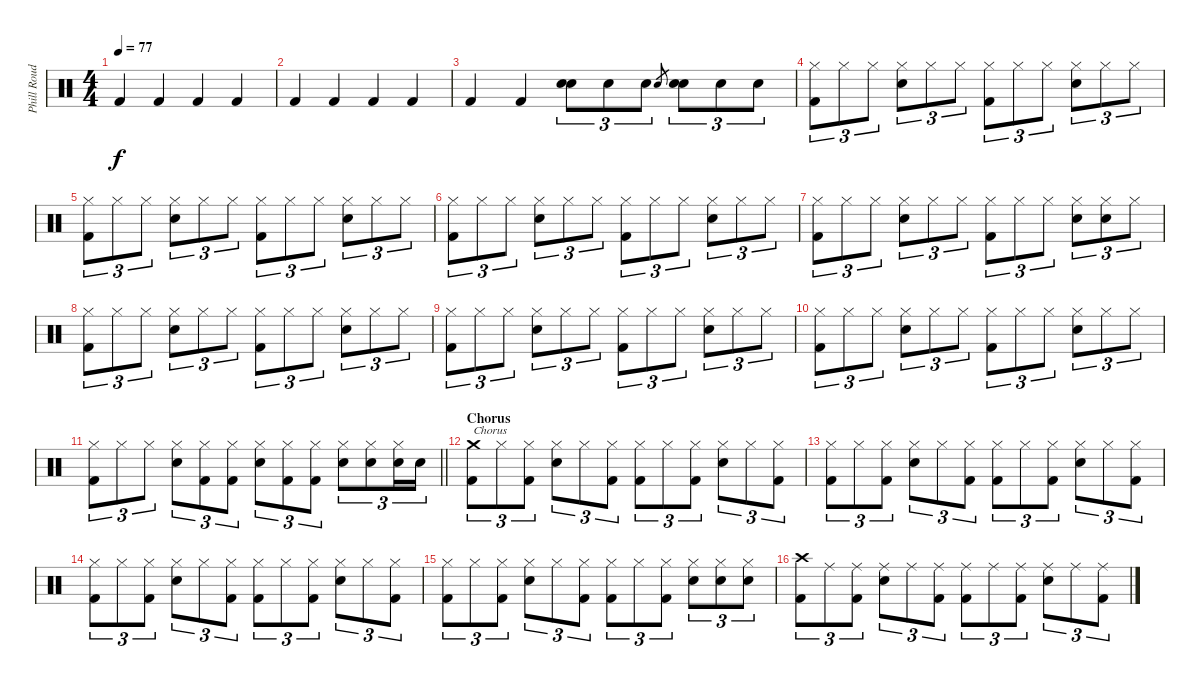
\track ("Phill Roud" "Phill Roud") {instrument percussion}
\staff {score}
\articulation defaults
\ts (4 4)
\tempo 77
\clef neutral
\ks c "Kick (hit) 2".4{dy f} "Kick (hit) 2".4 "Kick (hit) 2".4 "Kick (hit) 2".4
|
"Kick (hit) 2".4 "Kick (hit) 2".4 "Kick (hit) 2".4 "Kick (hit) 2".4 |
"Kick (hit) 2".4 "Kick (hit) 2".4 ("Electric Snare (hit)" "Electric Snare (hit)").8{tu (3 2)} "Electric Snare (hit)".8{tu (3 2)} "Electric Snare (hit)".8{tu (3 2)} "Electric Snare (hit)".8{gr} ("Electric Snare (hit)" "Electric Snare (hit)").8{tu (3 2)} "Electric Snare (hit)".8{tu (3 2)} "Electric Snare (hit)".8{tu (3 2)} |
("Kick (hit) 2" "Hi-Hat (closed)").8{tu (3 2)} "Hi-Hat (closed)".8{tu (3 2)} "Hi-Hat (closed)".8{tu (3 2)} ("Electric Snare (hit)" "Hi-Hat (closed)").8{tu (3 2)} "Hi-Hat (closed)".8{tu (3 2)} "Hi-Hat (closed)".8{tu (3 2)} ("Kick (hit) 2" "Hi-Hat (closed)").8{tu (3 2)} "Hi-Hat (closed)".8{tu (3 2)} "Hi-Hat (closed)".8{tu (3 2)} ("Electric Snare (hit)" "Hi-Hat (closed)").8{tu (3 2)} "Hi-Hat (closed)".8{tu (3 2)} "Hi-Hat (closed)".8{tu (3 2)} |
("Kick (hit) 2" "Hi-Hat (closed)").8{tu (3 2)} "Hi-Hat (closed)".8{tu (3 2)} "Hi-Hat (closed)".8{tu (3 2)} ("Electric Snare (hit)" "Hi-Hat (closed)").8{tu (3 2)} "Hi-Hat (closed)".8{tu (3 2)} "Hi-Hat (closed)".8{tu (3 2)} ("Kick (hit) 2" "Hi-Hat (closed)").8{tu (3 2)} "Hi-Hat (closed)".8{tu (3 2)} "Hi-Hat (closed)".8{tu (3 2)} ("Electric Snare (hit)" "Hi-Hat (closed)").8{tu (3 2)} "Hi-Hat (closed)".8{tu (3 2)} "Hi-Hat (closed)".8{tu (3 2)} |
("Kick (hit) 2" "Hi-Hat (closed)").8{tu (3 2)} "Hi-Hat (closed)".8{tu (3 2)} "Hi-Hat (closed)".8{tu (3 2)} ("Electric Snare (hit)" "Hi-Hat (closed)").8{tu (3 2)} "Hi-Hat (closed)".8{tu (3 2)} "Hi-Hat (closed)".8{tu (3 2)} ("Kick (hit) 2" "Hi-Hat (closed)").8{tu (3 2)} "Hi-Hat (closed)".8{tu (3 2)} "Hi-Hat (closed)".8{tu (3 2)} ("Electric Snare (hit)" "Hi-Hat (closed)").8{tu (3 2)} "Hi-Hat (closed)".8{tu (3 2)} "Hi-Hat (closed)".8{tu (3 2)} |
("Kick (hit) 2" "Hi-Hat (closed)").8{tu (3 2)} "Hi-Hat (closed)".8{tu (3 2)} "Hi-Hat (closed)".8{tu (3 2)} ("Electric Snare (hit)" "Hi-Hat (closed)").8{tu (3 2)} "Hi-Hat (closed)".8{tu (3 2)} "Hi-Hat (closed)".8{tu (3 2)} ("Kick (hit) 2" "Hi-Hat (closed)").8{tu (3 2)} "Hi-Hat (closed)".8{tu (3 2)} "Hi-Hat (closed)".8{tu (3 2)} ("Electric Snare (hit)" "Hi-Hat (closed)").8{tu (3 2)} ("Electric Snare (hit)" "Hi-Hat (closed)").8{tu (3 2)} "Hi-Hat (closed)".8{tu (3 2)} |
("Kick (hit) 2" "Hi-Hat (closed)").8{tu (3 2)} "Hi-Hat (closed)".8{tu (3 2)} "Hi-Hat (closed)".8{tu (3 2)} ("Electric Snare (hit)" "Hi-Hat (closed)").8{tu (3 2)} "Hi-Hat (closed)".8{tu (3 2)} "Hi-Hat (closed)".8{tu (3 2)} ("Kick (hit) 2" "Hi-Hat (closed)").8{tu (3 2)} "Hi-Hat (closed)".8{tu (3 2)} "Hi-Hat (closed)".8{tu (3 2)} ("Electric Snare (hit)" "Hi-Hat (closed)").8{tu (3 2)} "Hi-Hat (closed)".8{tu (3 2)} "Hi-Hat (closed)".8{tu (3 2)} |
("Kick (hit) 2" "Hi-Hat (closed)").8{tu (3 2)} "Hi-Hat (closed)".8{tu (3 2)} "Hi-Hat (closed)".8{tu (3 2)} ("Electric Snare (hit)" "Hi-Hat (closed)").8{tu (3 2)} "Hi-Hat (closed)".8{tu (3 2)} "Hi-Hat (closed)".8{tu (3 2)} ("Kick (hit) 2" "Hi-Hat (closed)").8{tu (3 2)} "Hi-Hat (closed)".8{tu (3 2)} "Hi-Hat (closed)".8{tu (3 2)} ("Electric Snare (hit)" "Hi-Hat (closed)").8{tu (3 2)} "Hi-Hat (closed)".8{tu (3 2)} "Hi-Hat (closed)".8{tu (3 2)} |
("Kick (hit) 2" "Hi-Hat (closed)").8{tu (3 2)} "Hi-Hat (closed)".8{tu (3 2)} "Hi-Hat (closed)".8{tu (3 2)} ("Electric Snare (hit)" "Hi-Hat (closed)").8{tu (3 2)} "Hi-Hat (closed)".8{tu (3 2)} "Hi-Hat (closed)".8{tu (3 2)} ("Kick (hit) 2" "Hi-Hat (closed)").8{tu (3 2)} "Hi-Hat (closed)".8{tu (3 2)} "Hi-Hat (closed)".8{tu (3 2)} ("Electric Snare (hit)" "Hi-Hat (closed)").8{tu (3 2)} "Hi-Hat (closed)".8{tu (3 2)} "Hi-Hat (closed)".8{tu (3 2)} |
\barLineRight lightlight
("Kick (hit) 2" "Hi-Hat (closed)").8{tu (3 2)} "Hi-Hat (closed)".8{tu (3 2)} "Hi-Hat (closed)".8{tu (3 2)} ("Electric Snare (hit)" "Hi-Hat (closed)").8{tu (3 2)} ("Kick (hit) 2" "Hi-Hat (closed)").8{tu (3 2)} ("Kick (hit) 2" "Hi-Hat (closed)").8{tu (3 2)} ("Electric Snare (hit)" "Hi-Hat (closed)").8{tu (3 2)} ("Kick (hit) 2" "Hi-Hat (closed)").8{tu (3 2)} ("Kick (hit) 2" "Hi-Hat (closed)").8{tu (3 2)} ("Electric Snare (hit)" "Hi-Hat (closed)").8{tu (3 2)} ("Electric Snare (hit)" "Hi-Hat (closed)").8{tu (3 2)} ("Electric Snare (hit)" "Hi-Hat (closed)").16{tu (3 2)} "Electric Snare (hit)".16{tu (3 2)} |
\section ("" "Chorus")
("Kick (hit) 2" "Crash medium (hit)").8{tu (3 2) txt "Chorus"} "Hi-Hat (closed)".8{tu (3 2)} ("Kick (hit) 2" "Hi-Hat (closed)").8{tu (3 2)} ("Electric Snare (hit)" "Hi-Hat (closed)").8{tu (3 2)} "Hi-Hat (closed)".8{tu (3 2)} ("Kick (hit) 2" "Hi-Hat (closed)").8{tu (3 2)} ("Kick (hit) 2" "Hi-Hat (closed)").8{tu (3 2)} "Hi-Hat (closed)".8{tu (3 2)} ("Kick (hit) 2" "Hi-Hat (closed)").8{tu (3 2)} ("Electric Snare (hit)" "Hi-Hat (closed)").8{tu (3 2)} "Hi-Hat (closed)".8{tu (3 2)} ("Kick (hit) 2" "Hi-Hat (closed)").8{tu (3 2)} |
("Kick (hit) 2" "Hi-Hat (closed)").8{tu (3 2)} "Hi-Hat (closed)".8{tu (3 2)} ("Kick (hit) 2" "Hi-Hat (closed)").8{tu (3 2)} ("Electric Snare (hit)" "Hi-Hat (closed)").8{tu (3 2)} "Hi-Hat (closed)".8{tu (3 2)} ("Kick (hit) 2" "Hi-Hat (closed)").8{tu (3 2)} ("Kick (hit) 2" "Hi-Hat (closed)").8{tu (3 2)} "Hi-Hat (closed)".8{tu (3 2)} ("Kick (hit) 2" "Hi-Hat (closed)").8{tu (3 2)} ("Electric Snare (hit)" "Hi-Hat (closed)").8{tu (3 2)} "Hi-Hat (closed)".8{tu (3 2)} ("Kick (hit) 2" "Hi-Hat (closed)").8{tu (3 2)} |
("Kick (hit) 2" "Hi-Hat (closed)").8{tu (3 2)} "Hi-Hat (closed)".8{tu (3 2)} ("Kick (hit) 2" "Hi-Hat (closed)").8{tu (3 2)} ("Electric Snare (hit)" "Hi-Hat (closed)").8{tu (3 2)} "Hi-Hat (closed)".8{tu (3 2)} ("Kick (hit) 2" "Hi-Hat (closed)").8{tu (3 2)} ("Kick (hit) 2" "Hi-Hat (closed)").8{tu (3 2)} "Hi-Hat (closed)".8{tu (3 2)} ("Kick (hit) 2" "Hi-Hat (closed)").8{tu (3 2)} ("Electric Snare (hit)" "Hi-Hat (closed)").8{tu (3 2)} "Hi-Hat (closed)".8{tu (3 2)} ("Kick (hit) 2" "Hi-Hat (closed)").8{tu (3 2)} |
("Kick (hit) 2" "Hi-Hat (closed)").8{tu (3 2)} "Hi-Hat (closed)".8{tu (3 2)} ("Kick (hit) 2" "Hi-Hat (closed)").8{tu (3 2)} ("Electric Snare (hit)" "Hi-Hat (closed)").8{tu (3 2)} "Hi-Hat (closed)".8{tu (3 2)} ("Kick (hit) 2" "Hi-Hat (closed)").8{tu (3 2)} ("Kick (hit) 2" "Hi-Hat (closed)").8{tu (3 2)} "Hi-Hat (closed)".8{tu (3 2)} ("Kick (hit) 2" "Hi-Hat (closed)").8{tu (3 2)} ("Electric Snare (hit)" "Hi-Hat (closed)").8{tu (3 2)} ("Electric Snare (hit)" "Hi-Hat (closed)").8{tu (3 2)} ("Electric Snare (hit)" "Hi-Hat (closed)").8{tu (3 2)} |
("Kick (hit) 2" "Crash high (hit)").8{tu (3 2)} "Ride (middle)".8{tu (3 2)} ("Kick (hit) 2" "Ride (middle)").8{tu (3 2)} ("Electric Snare (hit)" "Ride (middle)").8{tu (3 2)} "Ride (middle)".8{tu (3 2)} ("Kick (hit) 2" "Ride (middle)").8{tu (3 2)} ("Kick (hit) 2" "Ride (middle)").8{tu (3 2)} "Ride (middle)".8{tu (3 2)} ("Kick (hit) 2" "Ride (middle)").8{tu (3 2)} ("Electric Snare (hit)" "Ride (middle)").8{tu (3 2)} "Ride (middle)".8{tu (3 2)} ("Kick (hit) 2" "Ride (middle)").8{tu (3 2)}
